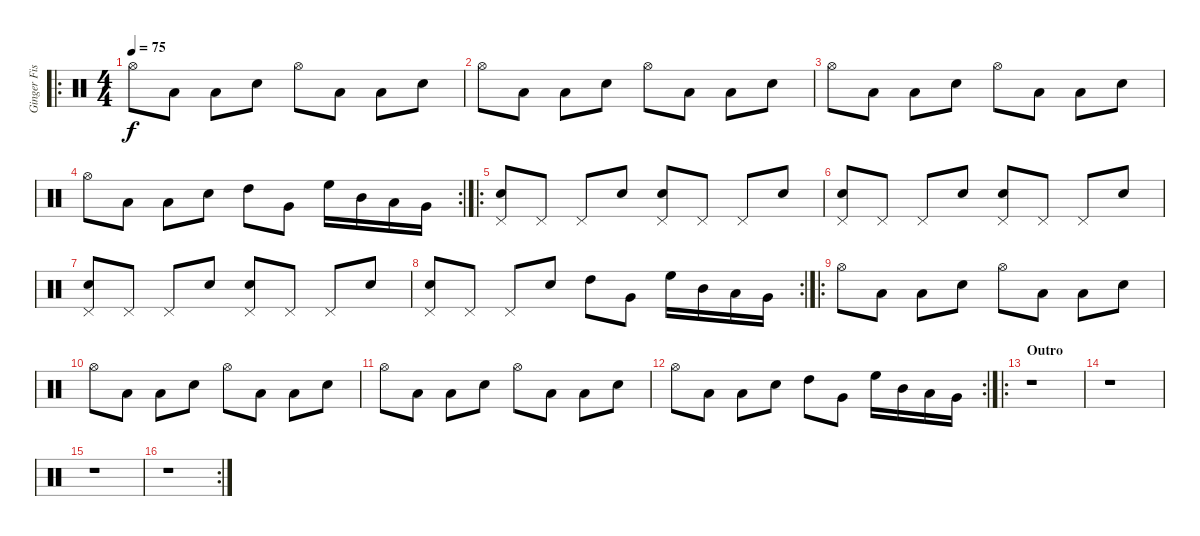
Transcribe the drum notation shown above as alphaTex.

\track ("Ginger Fish" "Ginger Fis") {instrument percussion}
\staff {score}
\articulation defaults
\ro
\ts (4 4)
\tempo 75
\clef neutral
\ks c "Hi-Hat (open)".8{dy f} "Low Tom (hit)".8 "Low Tom (hit)".8 "Snare (hit) 2".8 "Hi-Hat (open)".8 "Low Tom (hit)".8 "Low Tom (hit)".8 "Snare (hit) 2".8
|
"Hi-Hat (open)".8 "Low Tom (hit)".8 "Low Tom (hit)".8 "Snare (hit) 2".8 "Hi-Hat (open)".8 "Low Tom (hit)".8 "Low Tom (hit)".8 "Snare (hit) 2".8 |
"Hi-Hat (open)".8 "Low Tom (hit)".8 "Low Tom (hit)".8 "Snare (hit) 2".8 "Hi-Hat (open)".8 "Low Tom (hit)".8 "Low Tom (hit)".8 "Snare (hit) 2".8 |
\rc 2 "Hi-Hat (open)".8 "Low Tom (hit)".8 "Low Tom (hit)".8 "Snare (hit) 2".8 "High Tom (hit)".8 "Very Low Tom (hit)".8 "High Floor Tom (hit)".16 "Mid Tom (hit)".16 "Low Tom (hit)".16 "Very Low Tom (hit)".16
|
\ro
("Snare (hit) 2" "Pedal Hi-Hat (hit)").8 "Pedal Hi-Hat (hit)".8 "Pedal Hi-Hat (hit)".8 "Electric Snare (hit)".8 ("Snare (hit) 2" "Pedal Hi-Hat (hit)").8 "Pedal Hi-Hat (hit)".8 "Pedal Hi-Hat (hit)".8 "Electric Snare (hit)".8 |
("Snare (hit) 2" "Pedal Hi-Hat (hit)").8 "Pedal Hi-Hat (hit)".8 "Pedal Hi-Hat (hit)".8 "Electric Snare (hit)".8 ("Snare (hit) 2" "Pedal Hi-Hat (hit)").8 "Pedal Hi-Hat (hit)".8 "Pedal Hi-Hat (hit)".8 "Electric Snare (hit)".8 |
("Snare (hit) 2" "Pedal Hi-Hat (hit)").8 "Pedal Hi-Hat (hit)".8 "Pedal Hi-Hat (hit)".8 "Electric Snare (hit)".8 ("Snare (hit) 2" "Pedal Hi-Hat (hit)").8 "Pedal Hi-Hat (hit)".8 "Pedal Hi-Hat (hit)".8 "Electric Snare (hit)".8 |
\rc 2
("Snare (hit) 2" "Pedal Hi-Hat (hit)").8 "Pedal Hi-Hat (hit)".8 "Pedal Hi-Hat (hit)".8 "Electric Snare (hit)".8 "High Tom (hit)".8 "Very Low Tom (hit)".8 "High Floor Tom (hit)".16 "Mid Tom (hit)".16 "Low Tom (hit)".16 "Very Low Tom (hit)".16 |
\ro "Hi-Hat (open)".8 "Low Tom (hit)".8 "Low Tom (hit)".8 "Snare (hit) 2".8 "Hi-Hat (open)".8 "Low Tom (hit)".8 "Low Tom (hit)".8 "Snare (hit) 2".8
|
"Hi-Hat (open)".8 "Low Tom (hit)".8 "Low Tom (hit)".8 "Snare (hit) 2".8 "Hi-Hat (open)".8 "Low Tom (hit)".8 "Low Tom (hit)".8 "Snare (hit) 2".8 |
"Hi-Hat (open)".8 "Low Tom (hit)".8 "Low Tom (hit)".8 "Snare (hit) 2".8 "Hi-Hat (open)".8 "Low Tom (hit)".8 "Low Tom (hit)".8 "Snare (hit) 2".8 |
\rc 2 "Hi-Hat (open)".8 "Low Tom (hit)".8 "Low Tom (hit)".8 "Snare (hit) 2".8 "High Tom (hit)".8 "Very Low Tom (hit)".8 "High Floor Tom (hit)".16 "Mid Tom (hit)".16 "Low Tom (hit)".16 "Very Low Tom (hit)".16
|
\ro
\section ("" "Outro")
r.1 |
r.1 |
r.1 |
\rc 2
r.1
